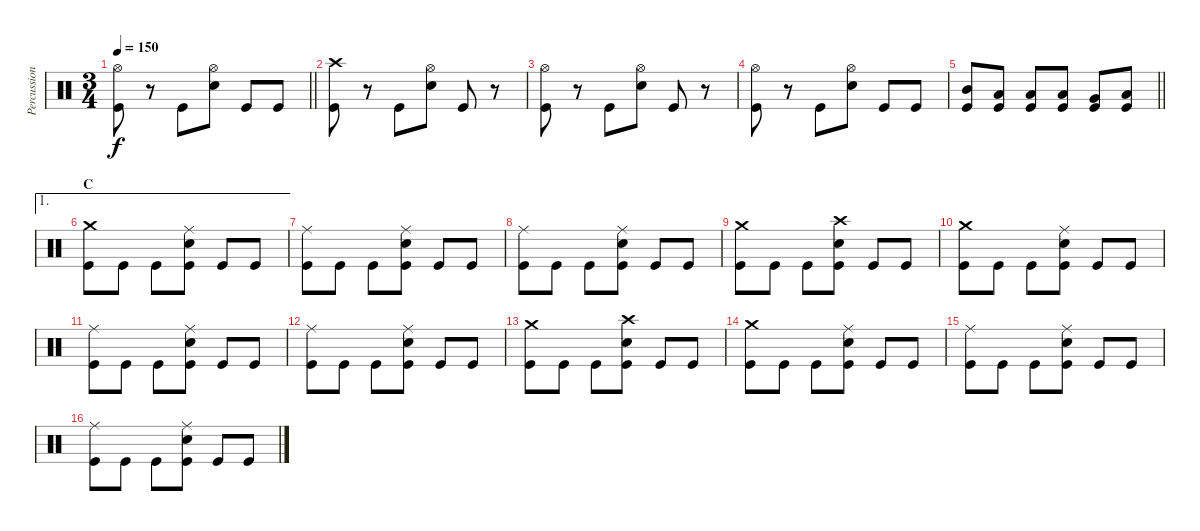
\track ("Percussion" "Percussion") {instrument percussion}
\staff {score}
\articulation defaults
\ts (3 4)
\tempo 150
\clef neutral
\barLineRight lightlight
\ks c
("Hi-Hat (open)" "Kick (hit)").8{dy f} r.8 "Kick (hit)".8 ("Hi-Hat (open)" "Snare (hit) 2").8 "Kick (hit)".8 "Kick (hit)".8 |
("Crash high (hit)" "Kick (hit)").8 r.8 "Kick (hit)".8 ("Hi-Hat (open)" "Snare (hit) 2").8 "Kick (hit)".8 r.8 |
("Hi-Hat (open)" "Kick (hit)").8 r.8 "Kick (hit)".8 ("Hi-Hat (open)" "Snare (hit) 2").8 "Kick (hit)".8 r.8 |
("Hi-Hat (open)" "Kick (hit)").8 r.8 "Kick (hit)".8 ("Hi-Hat (open)" "Snare (hit) 2").8 "Kick (hit)".8 "Kick (hit)".8 |
\barLineRight lightlight
("Mid Tom (hit)" "Kick (hit)").8 ("Low Tom (hit)" "Kick (hit)").8 ("Low Tom (hit)" "Kick (hit)").8 ("Low Tom (hit)" "Kick (hit)").8 ("Very Low Tom (hit)" "Kick (hit)").8 ("Low Floor Tom (hit)" "Kick (hit)").8 |
\ae 1
\section ("" "C")
("Crash medium (hit)" "Kick (hit)").8 "Kick (hit)".8 "Kick (hit)".8 ("Ride (middle)" "Snare (hit) 2" "Kick (hit)").8 "Kick (hit)".8 "Kick (hit)".8 |
("Ride (middle)" "Kick (hit)").8 "Kick (hit)".8 "Kick (hit)".8 ("Ride (middle)" "Snare (hit) 2" "Kick (hit)").8 "Kick (hit)".8 "Kick (hit)".8 |
("Ride (middle)" "Kick (hit)").8 "Kick (hit)".8 "Kick (hit)".8 ("Ride (middle)" "Snare (hit) 2" "Kick (hit)").8 "Kick (hit)".8 "Kick (hit)".8 |
("Crash medium (hit)" "Kick (hit)").8 "Kick (hit)".8 "Kick (hit)".8 ("Crash high (hit)" "Snare (hit) 2" "Kick (hit)").8 "Kick (hit)".8 "Kick (hit)".8 |
("Crash medium (hit)" "Kick (hit)").8 "Kick (hit)".8 "Kick (hit)".8 ("Ride (middle)" "Snare (hit) 2" "Kick (hit)").8 "Kick (hit)".8 "Kick (hit)".8 |
("Ride (middle)" "Kick (hit)").8 "Kick (hit)".8 "Kick (hit)".8 ("Ride (middle)" "Snare (hit) 2" "Kick (hit)").8 "Kick (hit)".8 "Kick (hit)".8 |
("Ride (middle)" "Kick (hit)").8 "Kick (hit)".8 "Kick (hit)".8 ("Ride (middle)" "Snare (hit) 2" "Kick (hit)").8 "Kick (hit)".8 "Kick (hit)".8 |
("Crash medium (hit)" "Kick (hit)").8 "Kick (hit)".8 "Kick (hit)".8 ("Crash high (hit)" "Snare (hit) 2" "Kick (hit)").8 "Kick (hit)".8 "Kick (hit)".8 |
("Crash medium (hit)" "Kick (hit)").8 "Kick (hit)".8 "Kick (hit)".8 ("Ride (middle)" "Snare (hit) 2" "Kick (hit)").8 "Kick (hit)".8 "Kick (hit)".8 |
("Ride (middle)" "Kick (hit)").8 "Kick (hit)".8 "Kick (hit)".8 ("Ride (middle)" "Snare (hit) 2" "Kick (hit)").8 "Kick (hit)".8 "Kick (hit)".8 |
("Ride (middle)" "Kick (hit)").8 "Kick (hit)".8 "Kick (hit)".8 ("Ride (middle)" "Snare (hit) 2" "Kick (hit)").8 "Kick (hit)".8 "Kick (hit)".8
